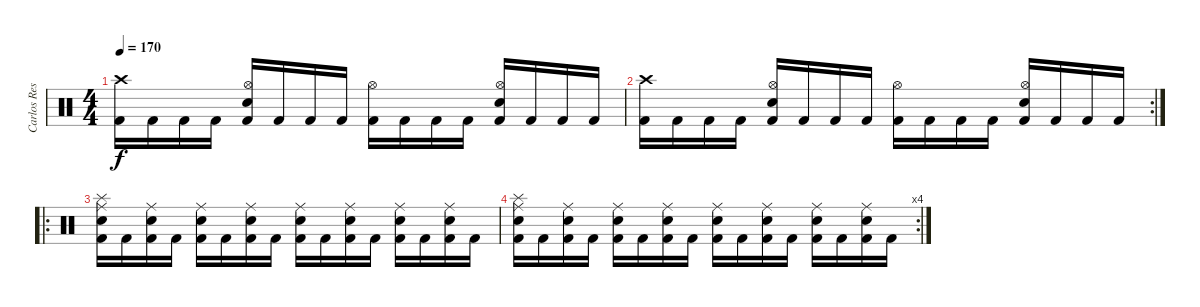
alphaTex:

\track ("Carlos Restrepo" "Carlos Res") {instrument percussion}
\staff {score}
\articulation defaults
\ts (4 4)
\tempo 170
\clef neutral
\ks c
("Kick (hit) 2" "Crash high (hit)").16{dy f} "Kick (hit) 2".16 "Kick (hit) 2".16 "Kick (hit) 2".16 ("Kick (hit) 2" "Hi-Hat (open)" "Electric Snare (hit)").16 "Kick (hit) 2".16 "Kick (hit) 2".16 "Kick (hit) 2".16 ("Kick (hit) 2" "Hi-Hat (open)").16 "Kick (hit) 2".16 "Kick (hit) 2".16 "Kick (hit) 2".16 ("Kick (hit) 2" "Hi-Hat (open)" "Electric Snare (hit)").16 "Kick (hit) 2".16 "Kick (hit) 2".16 "Kick (hit) 2".16 |
\rc 2
("Kick (hit) 2" "Crash high (hit)").16 "Kick (hit) 2".16 "Kick (hit) 2".16 "Kick (hit) 2".16 ("Kick (hit) 2" "Hi-Hat (open)" "Electric Snare (hit)").16 "Kick (hit) 2".16 "Kick (hit) 2".16 "Kick (hit) 2".16 ("Kick (hit) 2" "Hi-Hat (open)").16 "Kick (hit) 2".16 "Kick (hit) 2".16 "Kick (hit) 2".16 ("Kick (hit) 2" "Hi-Hat (open)" "Electric Snare (hit)").16 "Kick (hit) 2".16 "Kick (hit) 2".16 "Kick (hit) 2".16 |
\ro
("Kick (hit) 2" "Snare (hit) 2" "Ride (middle)" "Splash (hit)").16 "Kick (hit) 2".16 ("Kick (hit) 2" "Snare (hit) 2" "Ride (middle)").16 "Kick (hit) 2".16 ("Kick (hit) 2" "Snare (hit) 2" "Ride (middle)").16 "Kick (hit) 2".16 ("Kick (hit) 2" "Snare (hit) 2" "Ride (middle)").16 "Kick (hit) 2".16 ("Kick (hit) 2" "Snare (hit) 2" "Ride (middle)").16 "Kick (hit) 2".16 ("Kick (hit) 2" "Snare (hit) 2" "Ride (middle)").16 "Kick (hit) 2".16 ("Kick (hit) 2" "Snare (hit) 2" "Ride (middle)").16 "Kick (hit) 2".16 ("Kick (hit) 2" "Snare (hit) 2" "Ride (middle)").16 "Kick (hit) 2".16 |
\rc 4
("Kick (hit) 2" "Snare (hit) 2" "Ride (middle)" "Splash (hit)").16 "Kick (hit) 2".16 ("Kick (hit) 2" "Snare (hit) 2" "Ride (middle)").16 "Kick (hit) 2".16 ("Kick (hit) 2" "Snare (hit) 2" "Ride (middle)").16 "Kick (hit) 2".16 ("Kick (hit) 2" "Snare (hit) 2" "Ride (middle)").16 "Kick (hit) 2".16 ("Kick (hit) 2" "Snare (hit) 2" "Ride (middle)").16 "Kick (hit) 2".16 ("Kick (hit) 2" "Snare (hit) 2" "Ride (middle)").16 "Kick (hit) 2".16 ("Kick (hit) 2" "Snare (hit) 2" "Ride (middle)").16 "Kick (hit) 2".16 ("Kick (hit) 2" "Snare (hit) 2" "Ride (middle)").16 "Kick (hit) 2".16
